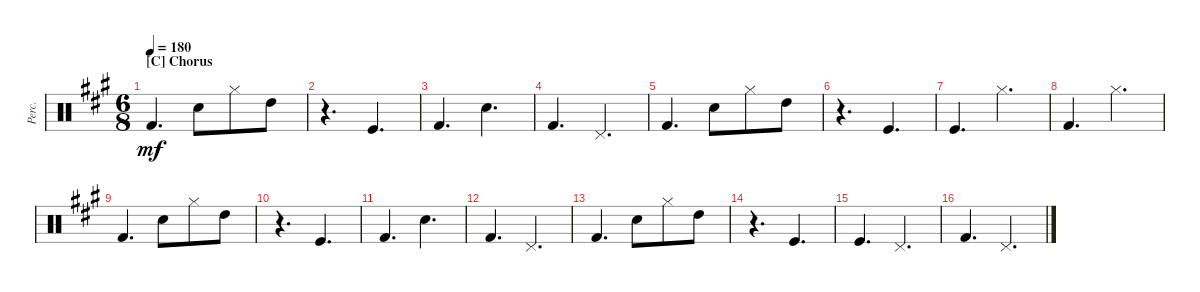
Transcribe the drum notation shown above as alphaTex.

\defaultSystemsLayout 4
\bracketExtendMode groupsimilarinstruments
\otherSystemsTrackNameOrientation horizontal
\track ("Percussions" "Perc.") {instrument percussion}
\staff {score}
\articulation defaults
\ts (6 8)
\section ("C" "Chorus")
\tempo 180
\clef neutral
\ks f#minor "Kick (hit) 2"{acc forcenatural}.4{d dy mf beam Up} "Snare (hit) 2"{acc forcenatural}.8{beam Down} "Hi-Hat (closed)"{acc forcenatural}.8{beam Down} "High Tom (hit)"{acc forcenatural}.8{beam Down}
|
r.4{d beam Down} "Kick (hit)"{acc forcenatural}.4{d beam Up} |
"Kick (hit) 2"{acc forcenatural}.4{d beam Up} "Snare (hit) 2"{acc forcenatural}.4{d beam Down} |
"Kick (hit) 2"{acc forcenatural}.4{d beam Up} "Pedal Hi-Hat (hit)"{acc forcenatural}.4{d beam Up} |
"Kick (hit) 2"{acc forcenatural}.4{d beam Up} "Snare (hit) 2"{acc forcenatural}.8{beam Down} "Hi-Hat (closed)"{acc forcenatural}.8{beam Down} "High Tom (hit)"{acc forcenatural}.8{beam Down} |
r.4{d beam Down} "Kick (hit)"{acc forcenatural}.4{d beam Up} |
"Kick (hit)"{acc forcenatural}.4{d beam Up} "Hi-Hat (closed)"{acc forcenatural}.4{d beam Down} |
"Kick (hit) 2"{acc forcenatural}.4{d beam Up} "Hi-Hat (closed)"{acc forcenatural}.4{d beam Down} |
"Kick (hit) 2"{acc forcenatural}.4{d beam Up} "Snare (hit) 2"{acc forcenatural}.8{beam Down} "Hi-Hat (closed)"{acc forcenatural}.8{beam Down} "High Tom (hit)"{acc forcenatural}.8{beam Down} |
r.4{d beam Down} "Kick (hit)"{acc forcenatural}.4{d beam Up} |
"Kick (hit) 2"{acc forcenatural}.4{d beam Up} "Snare (hit) 2"{acc forcenatural}.4{d beam Down} |
"Kick (hit) 2"{acc forcenatural}.4{d beam Up} "Pedal Hi-Hat (hit)"{acc forcenatural}.4{d beam Up} |
"Kick (hit) 2"{acc forcenatural}.4{d beam Up} "Snare (hit) 2"{acc forcenatural}.8{beam Down} "Hi-Hat (closed)"{acc forcenatural}.8{beam Down} "High Tom (hit)"{acc forcenatural}.8{beam Down} |
r.4{d beam Down} "Kick (hit)"{acc forcenatural}.4{d beam Up} |
"Kick (hit)"{acc forcenatural}.4{d beam Up} "Pedal Hi-Hat (hit)"{acc forcenatural}.4{d beam Up} |
"Kick (hit) 2"{acc forcenatural}.4{d beam Up} "Pedal Hi-Hat (hit)"{acc forcenatural}.4{d beam Up}
